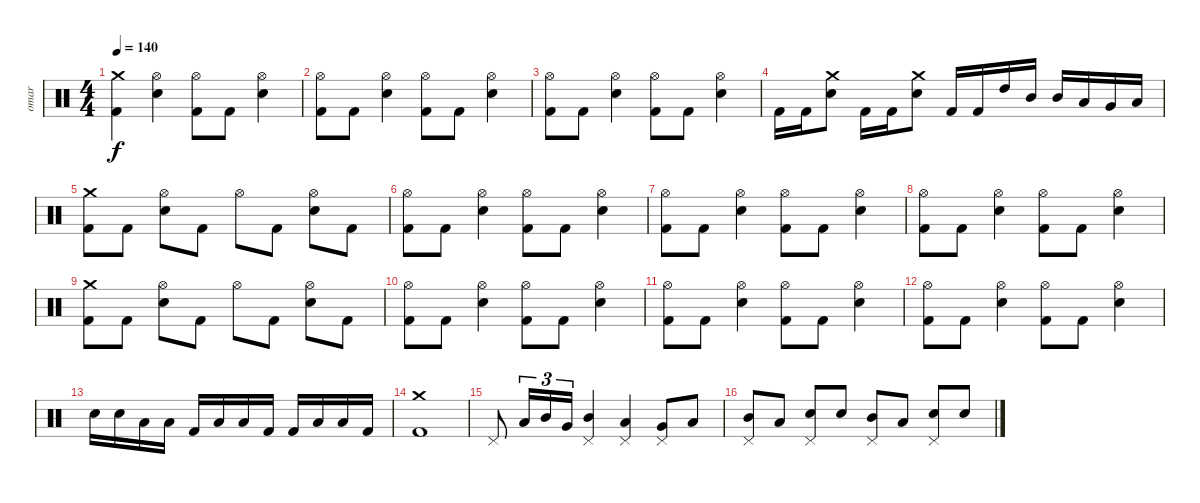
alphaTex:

\track ("omar" "omar") {instrument percussion}
\staff {score}
\articulation defaults
\ts (4 4)
\tempo 140
\clef neutral
\ks c
("Crash medium (hit)" "Kick (hit) 2").4{dy f} ("Hi-Hat (open)" "Electric Snare (hit)").4 ("Hi-Hat (open)" "Kick (hit) 2").8 "Kick (hit) 2".8 ("Hi-Hat (open)" "Electric Snare (hit)").4 |
("Hi-Hat (open)" "Kick (hit) 2").8 "Kick (hit) 2".8 ("Hi-Hat (open)" "Electric Snare (hit)").4 ("Hi-Hat (open)" "Kick (hit) 2").8 "Kick (hit) 2".8 ("Hi-Hat (open)" "Electric Snare (hit)").4 |
("Hi-Hat (open)" "Kick (hit) 2").8 "Kick (hit) 2".8 ("Hi-Hat (open)" "Electric Snare (hit)").4 ("Hi-Hat (open)" "Kick (hit) 2").8 "Kick (hit) 2".8 ("Hi-Hat (open)" "Electric Snare (hit)").4 |
"Kick (hit) 2".16 "Kick (hit) 2".16 ("Crash medium (hit)" "Electric Snare (hit)").8 "Kick (hit) 2".16 "Kick (hit) 2".16 ("Crash medium (hit)" "Electric Snare (hit)").8 "Kick (hit) 2".16 "Kick (hit) 2".16 "High Tom (hit)".16 "Mid Tom (hit)".16 "Mid Tom (hit)".16 "Low Tom (hit)".16 "Very Low Tom (hit)".16 "Low Floor Tom (hit)".16 |
("Crash medium (hit)" "Kick (hit) 2").8 "Kick (hit) 2".8 ("Hi-Hat (open)" "Electric Snare (hit)").8 "Kick (hit) 2".8 "Hi-Hat (open)".8 "Kick (hit) 2".8 ("Hi-Hat (open)" "Electric Snare (hit)").8 "Kick (hit) 2".8 |
("Hi-Hat (open)" "Kick (hit) 2").8 "Kick (hit) 2".8 ("Hi-Hat (open)" "Electric Snare (hit)").4 ("Hi-Hat (open)" "Kick (hit) 2").8 "Kick (hit) 2".8 ("Hi-Hat (open)" "Electric Snare (hit)").4 |
("Hi-Hat (open)" "Kick (hit) 2").8 "Kick (hit) 2".8 ("Hi-Hat (open)" "Electric Snare (hit)").4 ("Hi-Hat (open)" "Kick (hit) 2").8 "Kick (hit) 2".8 ("Hi-Hat (open)" "Electric Snare (hit)").4 |
("Hi-Hat (open)" "Kick (hit) 2").8 "Kick (hit) 2".8 ("Hi-Hat (open)" "Electric Snare (hit)").4 ("Hi-Hat (open)" "Kick (hit) 2").8 "Kick (hit) 2".8 ("Hi-Hat (open)" "Electric Snare (hit)").4 |
("Crash medium (hit)" "Kick (hit) 2").8 "Kick (hit) 2".8 ("Hi-Hat (open)" "Electric Snare (hit)").8 "Kick (hit) 2".8 "Hi-Hat (open)".8 "Kick (hit) 2".8 ("Hi-Hat (open)" "Electric Snare (hit)").8 "Kick (hit) 2".8 |
("Hi-Hat (open)" "Kick (hit) 2").8 "Kick (hit) 2".8 ("Hi-Hat (open)" "Electric Snare (hit)").4 ("Hi-Hat (open)" "Kick (hit) 2").8 "Kick (hit) 2".8 ("Hi-Hat (open)" "Electric Snare (hit)").4 |
("Hi-Hat (open)" "Kick (hit) 2").8 "Kick (hit) 2".8 ("Hi-Hat (open)" "Electric Snare (hit)").4 ("Hi-Hat (open)" "Kick (hit) 2").8 "Kick (hit) 2".8 ("Hi-Hat (open)" "Electric Snare (hit)").4 |
("Hi-Hat (open)" "Kick (hit) 2").8 "Kick (hit) 2".8 ("Hi-Hat (open)" "Electric Snare (hit)").4 ("Hi-Hat (open)" "Kick (hit) 2").8 "Kick (hit) 2".8 ("Hi-Hat (open)" "Electric Snare (hit)").4 |
"Electric Snare (hit)".16 "Electric Snare (hit)".16 "Low Tom (hit)".16 "Low Tom (hit)".16 "Kick (hit) 2".16 "Low Tom (hit)".16 "Low Tom (hit)".16 "Kick (hit) 2".16 "Kick (hit) 2".16 "Low Tom (hit)".16 "Low Tom (hit)".16 "Kick (hit) 2".16 |
("Crash medium (hit)" "Kick (hit) 2").1 |
"Pedal Hi-Hat (hit)".8 "Low Tom (hit)".16{tu (3 2)} "Mid Tom (hit)".16{tu (3 2)} "Very Low Tom (hit)".16{tu (3 2)} ("Pedal Hi-Hat (hit)" "Mid Tom (hit)").4 ("Pedal Hi-Hat (hit)" "Low Tom (hit)").4 ("Pedal Hi-Hat (hit)" "Very Low Tom (hit)").8 "Low Floor Tom (hit)".8 |
("Pedal Hi-Hat (hit)" "Mid Tom (hit)").8 "Low Tom (hit)".8 ("Pedal Hi-Hat (hit)" "Electric Snare (hit)").8 "Electric Snare (hit)".8 ("Pedal Hi-Hat (hit)" "Mid Tom (hit)").8 "Low Tom (hit)".8 ("Pedal Hi-Hat (hit)" "Electric Snare (hit)").8 "Electric Snare (hit)".8
